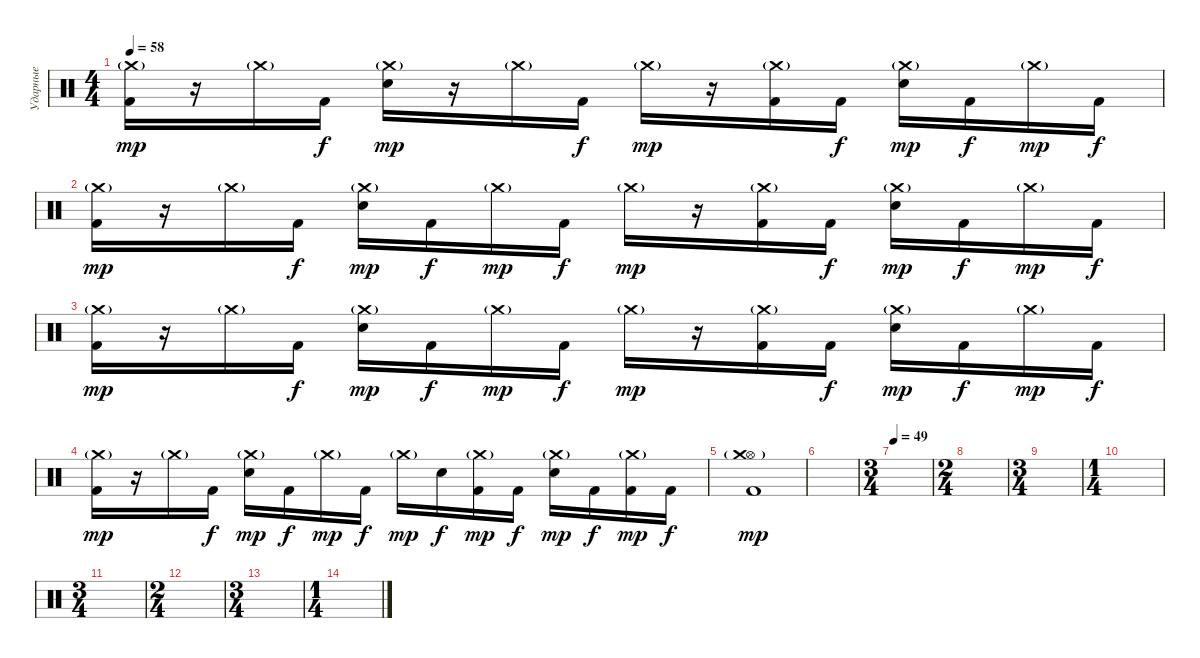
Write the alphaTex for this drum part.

\track ("Ударные" "Ударные") {instrument percussion}
\staff {score}
\articulation defaults
\ts (4 4)
\tempo 58
\clef neutral
\ks c
("Crash medium (hit)"{g} "Kick (hit) 2").16{dy mp} r.16 "Crash medium (hit)"{g}.16 "Kick (hit) 2".16{dy f} ("Crash medium (hit)"{g} "Electric Snare (hit)").16{dy mp} r.16 "Crash medium (hit)"{g}.16 "Kick (hit) 2".16{dy f} "Crash medium (hit)"{g}.16{dy mp} r.16 ("Crash medium (hit)"{g} "Kick (hit) 2").16 "Kick (hit) 2".16{dy f} ("Crash medium (hit)"{g} "Electric Snare (hit)").16{dy mp} "Kick (hit) 2".16{dy f} "Crash medium (hit)"{g}.16{dy mp} "Kick (hit) 2".16{dy f} |
("Crash medium (hit)"{g} "Kick (hit) 2").16{dy mp} r.16 "Crash medium (hit)"{g}.16 "Kick (hit) 2".16{dy f} ("Crash medium (hit)"{g} "Electric Snare (hit)").16{dy mp} "Kick (hit) 2".16{dy f} "Crash medium (hit)"{g}.16{dy mp} "Kick (hit) 2".16{dy f} "Crash medium (hit)"{g}.16{dy mp} r.16 ("Crash medium (hit)"{g} "Kick (hit) 2").16 "Kick (hit) 2".16{dy f} ("Crash medium (hit)"{g} "Electric Snare (hit)").16{dy mp} "Kick (hit) 2".16{dy f} "Crash medium (hit)"{g}.16{dy mp} "Kick (hit) 2".16{dy f} |
("Crash medium (hit)"{g} "Kick (hit) 2").16{dy mp} r.16 "Crash medium (hit)"{g}.16 "Kick (hit) 2".16{dy f} ("Crash medium (hit)"{g} "Electric Snare (hit)").16{dy mp} "Kick (hit) 2".16{dy f} "Crash medium (hit)"{g}.16{dy mp} "Kick (hit) 2".16{dy f} "Crash medium (hit)"{g}.16{dy mp} r.16 ("Crash medium (hit)"{g} "Kick (hit) 2").16 "Kick (hit) 2".16{dy f} ("Crash medium (hit)"{g} "Electric Snare (hit)").16{dy mp} "Kick (hit) 2".16{dy f} "Crash medium (hit)"{g}.16{dy mp} "Kick (hit) 2".16{dy f} |
("Crash medium (hit)"{g} "Kick (hit) 2").16{dy mp} r.16 "Crash medium (hit)"{g}.16 "Kick (hit) 2".16{dy f} ("Crash medium (hit)"{g} "Electric Snare (hit)").16{dy mp} "Kick (hit) 2".16{dy f} "Crash medium (hit)"{g}.16{dy mp} "Kick (hit) 2".16{dy f} "Crash medium (hit)"{g}.16{dy mp} "Electric Snare (hit)".16{dy f} ("Crash medium (hit)"{g} "Kick (hit) 2").16{dy mp} "Kick (hit) 2".16{dy f} ("Crash medium (hit)"{g} "Electric Snare (hit)").16{dy mp} "Kick (hit) 2".16{dy f} ("Crash medium (hit)"{g} "Kick (hit) 2").16{dy mp} "Kick (hit) 2".16{dy f} |
("Hi-Hat (open)" "Crash medium (hit)"{g} "Kick (hit) 2").1{dy mp} |
|
\ts (3 4)
\tempo 49
|
\ts (2 4)
|
\ts (3 4)
|
\ts (1 4)
|
\ts (3 4)
|
\ts (2 4)
|
\ts (3 4)
|
\ts (1 4)
